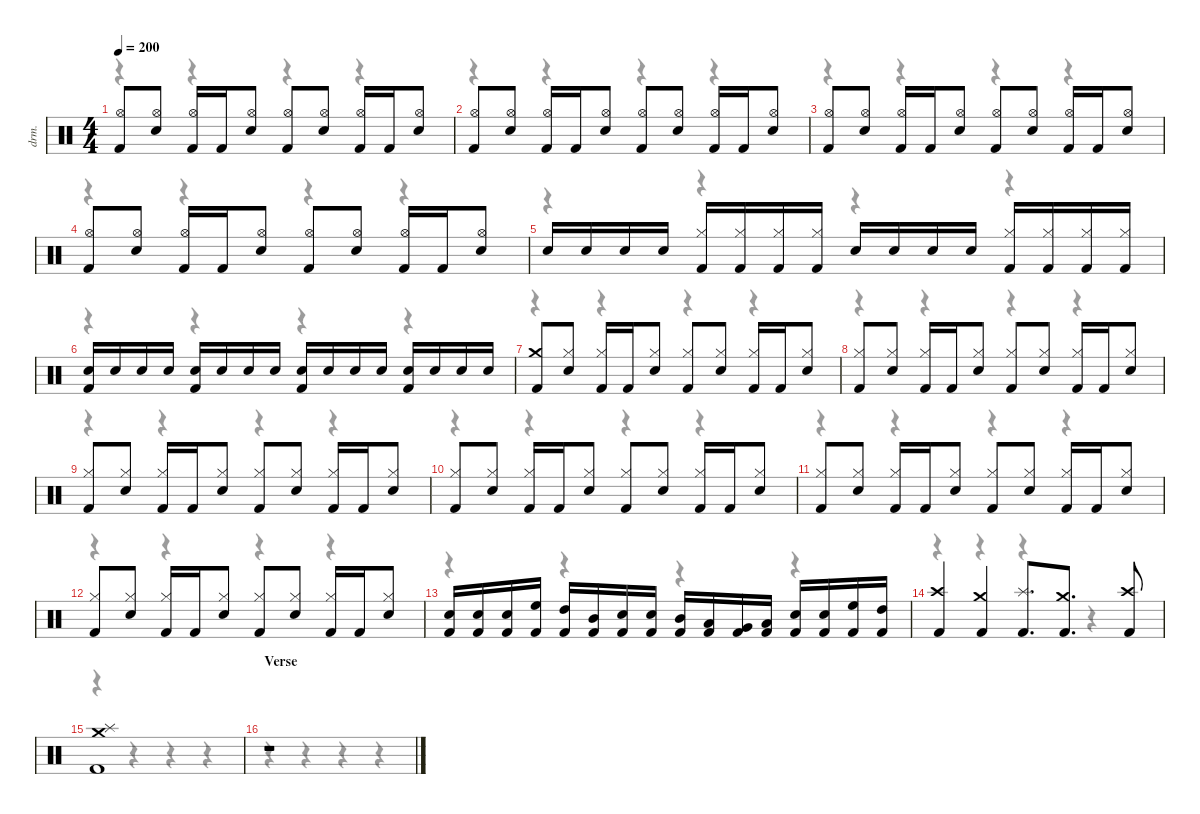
\hideDynamics
\bracketExtendMode nobrackets
\otherSystemsTrackNameOrientation horizontal
\track ("Drums" "drm.") {instrument percussion}
\staff {score}
\articulation defaults
\voice
\ts (4 4)
\scale
0.980728
\tempo 200
\accidentals auto
\clef neutral
\ottava regular
\simile none
\ks c
("Kick (hit) 2" "Hi-Hat (open)").8{dy f} ("Snare (hit) 2" "Hi-Hat (open)").8 ("Kick (hit) 2" "Hi-Hat (open)").16 "Kick (hit) 2".16 ("Snare (hit) 2" "Hi-Hat (open)").8 ("Kick (hit) 2" "Hi-Hat (open)").8 ("Snare (hit) 2" "Hi-Hat (open)").8 ("Kick (hit) 2" "Hi-Hat (open)").16 "Kick (hit) 2".16 ("Snare (hit) 2" "Hi-Hat (open)").8 |
\scale
0.980728 ("Kick (hit) 2" "Hi-Hat (open)").8 ("Snare (hit) 2" "Hi-Hat (open)").8 ("Kick (hit) 2" "Hi-Hat (open)").16 "Kick (hit) 2".16 ("Snare (hit) 2" "Hi-Hat (open)").8 ("Kick (hit) 2" "Hi-Hat (open)").8 ("Snare (hit) 2" "Hi-Hat (open)").8 ("Kick (hit) 2" "Hi-Hat (open)").16 "Kick (hit) 2".16 ("Snare (hit) 2" "Hi-Hat (open)").8 |
\scale
1.08422 ("Kick (hit) 2" "Hi-Hat (open)").8 ("Snare (hit) 2" "Hi-Hat (open)").8 ("Kick (hit) 2" "Hi-Hat (open)").16 "Kick (hit) 2".16 ("Snare (hit) 2" "Hi-Hat (open)").8 ("Kick (hit) 2" "Hi-Hat (open)").8 ("Snare (hit) 2" "Hi-Hat (open)").8 ("Kick (hit) 2" "Hi-Hat (open)").16 "Kick (hit) 2".16 ("Snare (hit) 2" "Hi-Hat (open)").8 |
\scale
0.977271 ("Kick (hit) 2" "Hi-Hat (open)").8 ("Snare (hit) 2" "Hi-Hat (open)").8 ("Kick (hit) 2" "Hi-Hat (open)").16 "Kick (hit) 2".16 ("Snare (hit) 2" "Hi-Hat (open)").8 ("Kick (hit) 2" "Hi-Hat (open)").8 ("Snare (hit) 2" "Hi-Hat (open)").8 ("Kick (hit) 2" "Hi-Hat (open)").16 "Kick (hit) 2".16 ("Snare (hit) 2" "Hi-Hat (open)").8 |
\scale
0.984627 "Snare (hit) 2".16 "Snare (hit) 2".16 "Snare (hit) 2".16 "Snare (hit) 2".16 ("Kick (hit) 2" "Hi-Hat (closed)").16 ("Kick (hit) 2" "Hi-Hat (closed)").16 ("Kick (hit) 2" "Hi-Hat (closed)").16 ("Kick (hit) 2" "Hi-Hat (closed)").16 "Snare (hit) 2".16 "Snare (hit) 2".16 "Snare (hit) 2".16 "Snare (hit) 2".16 ("Kick (hit) 2" "Hi-Hat (closed)").16 ("Kick (hit) 2" "Hi-Hat (closed)").16 ("Kick (hit) 2" "Hi-Hat (closed)").16 ("Kick (hit) 2" "Hi-Hat (closed)").16 |
\scale
0.984627 ("Kick (hit) 2" "Snare (hit) 2").16{dy ff} "Snare (hit) 2".16{dy f} "Snare (hit) 2".16 "Snare (hit) 2".16 ("Kick (hit) 2" "Snare (hit) 2").16{dy ff} "Snare (hit) 2".16{dy f} "Snare (hit) 2".16 "Snare (hit) 2".16 ("Kick (hit) 2" "Snare (hit) 2").16{dy ff} "Snare (hit) 2".16{dy f} "Snare (hit) 2".16 "Snare (hit) 2".16 ("Kick (hit) 2" "Snare (hit) 2").16{dy ff} "Snare (hit) 2".16{dy f} "Snare (hit) 2".16 "Snare (hit) 2".16 |
\scale
0.984627 ("Kick (hit) 2" "Crash medium (hit)").8 ("Snare (hit) 2" "Hi-Hat (closed)").8 ("Kick (hit) 2" "Hi-Hat (closed)").16 "Kick (hit) 2".16 ("Snare (hit) 2" "Hi-Hat (closed)").8 ("Kick (hit) 2" "Hi-Hat (closed)").8 ("Snare (hit) 2" "Hi-Hat (closed)").8 ("Kick (hit) 2" "Hi-Hat (closed)").16 "Kick (hit) 2".16 ("Snare (hit) 2" "Hi-Hat (closed)").8 |
\scale
0.984627 ("Kick (hit) 2" "Hi-Hat (closed)").8 ("Snare (hit) 2" "Hi-Hat (closed)").8 ("Kick (hit) 2" "Hi-Hat (closed)").16 "Kick (hit) 2".16 ("Snare (hit) 2" "Hi-Hat (closed)").8 ("Kick (hit) 2" "Hi-Hat (closed)").8 ("Snare (hit) 2" "Hi-Hat (closed)").8 ("Kick (hit) 2" "Hi-Hat (closed)").16 "Kick (hit) 2".16 ("Snare (hit) 2" "Hi-Hat (closed)").8 |
\scale
1.08606 ("Kick (hit) 2" "Hi-Hat (closed)").8 ("Snare (hit) 2" "Hi-Hat (closed)").8 ("Kick (hit) 2" "Hi-Hat (closed)").16 "Kick (hit) 2".16 ("Snare (hit) 2" "Hi-Hat (closed)").8 ("Kick (hit) 2" "Hi-Hat (closed)").8 ("Snare (hit) 2" "Hi-Hat (closed)").8 ("Kick (hit) 2" "Hi-Hat (closed)").16 "Kick (hit) 2".16 ("Snare (hit) 2" "Hi-Hat (closed)").8 |
\scale
0.982788 ("Kick (hit) 2" "Hi-Hat (closed)").8 ("Snare (hit) 2" "Hi-Hat (closed)").8 ("Kick (hit) 2" "Hi-Hat (closed)").16 "Kick (hit) 2".16 ("Snare (hit) 2" "Hi-Hat (closed)").8 ("Kick (hit) 2" "Hi-Hat (closed)").8 ("Snare (hit) 2" "Hi-Hat (closed)").8 ("Kick (hit) 2" "Hi-Hat (closed)").16 "Kick (hit) 2".16 ("Snare (hit) 2" "Hi-Hat (closed)").8 |
\scale
0.982788 ("Kick (hit) 2" "Hi-Hat (closed)").8 ("Snare (hit) 2" "Hi-Hat (closed)").8 ("Kick (hit) 2" "Hi-Hat (closed)").16 "Kick (hit) 2".16 ("Snare (hit) 2" "Hi-Hat (closed)").8 ("Kick (hit) 2" "Hi-Hat (closed)").8 ("Snare (hit) 2" "Hi-Hat (closed)").8 ("Kick (hit) 2" "Hi-Hat (closed)").16 "Kick (hit) 2".16 ("Snare (hit) 2" "Hi-Hat (closed)").8 |
\scale
0.982788 ("Kick (hit) 2" "Hi-Hat (closed)").8 ("Snare (hit) 2" "Hi-Hat (closed)").8 ("Kick (hit) 2" "Hi-Hat (closed)").16 "Kick (hit) 2".16 ("Snare (hit) 2" "Hi-Hat (closed)").8 ("Kick (hit) 2" "Hi-Hat (closed)").8 ("Snare (hit) 2" "Hi-Hat (closed)").8 ("Kick (hit) 2" "Hi-Hat (closed)").16 "Kick (hit) 2".16 ("Snare (hit) 2" "Hi-Hat (closed)").8 |
\scale
0.982788 ("Kick (hit) 2" "Snare (hit) 2").16 ("Kick (hit) 2" "Snare (hit) 2").16 ("Kick (hit) 2" "Snare (hit) 2").16 ("Kick (hit) 2" "High Floor Tom (hit)").16 ("Kick (hit) 2" "High Tom (hit)").16 ("Kick (hit) 2" "Mid Tom (hit)").16 ("Kick (hit) 2" "Snare (hit) 2").16 ("Kick (hit) 2" "Snare (hit) 2").16 ("Kick (hit) 2" "Mid Tom (hit)").16 ("Kick (hit) 2" "Low Tom (hit)").16 ("Kick (hit) 2" "Very Low Tom (hit)").16 ("Kick (hit) 2" "Low Floor Tom (hit)").16 ("Kick (hit) 2" "Snare (hit) 2").16 ("Kick (hit) 2" "Snare (hit) 2").16 ("Kick (hit) 2" "High Floor Tom (hit)").16 ("Kick (hit) 2" "High Tom (hit)").16 |
\scale
0.982788 ("Kick (hit) 2" "Crash high (hit)").4 ("Kick (hit) 2" "Crash medium (hit)").4 ("Kick (hit) 2" "Splash (hit)").8{d} ("Kick (hit) 2" "Crash medium (hit)").8{d} ("Kick (hit) 2" "Crash high (hit)").8 |
\scale
1.12755 ("Kick (hit) 2" "Splash (hit)" "Crash medium (hit)").1 |
\section ("" "Verse")
\scale
0.992988 r.1
\voice
\clef neutral
\ottava regular
\simile none
\ks c
r.4{dy mf} r.4 r.4 r.4 |
r.4 r.4 r.4 r.4 |
r.4 r.4 r.4 r.4 |
r.4 r.4 r.4 r.4 |
r.4 r.4 r.4 r.4 |
r.4 r.4 r.4 r.4 |
r.4 r.4 r.4 r.4 |
r.4 r.4 r.4 r.4 |
r.4 r.4 r.4 r.4 |
r.4 r.4 r.4 r.4 |
r.4 r.4 r.4 r.4 |
r.4 r.4 r.4 r.4 |
r.4 r.4 r.4 r.4 |
r.4 r.4 r.4 r.4 |
r.4 r.4 r.4 r.4 |
r.4 r.4 r.4 r.4
